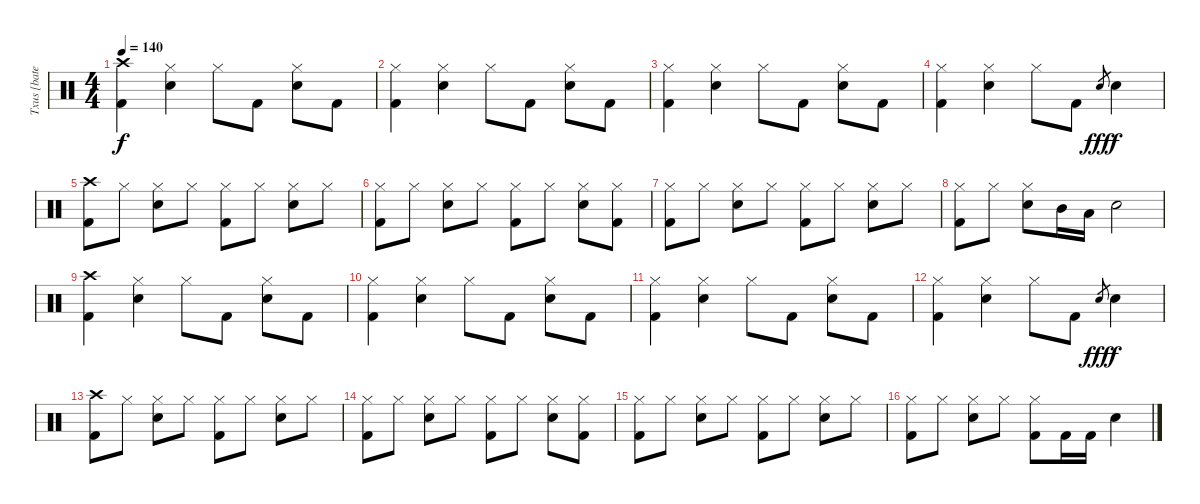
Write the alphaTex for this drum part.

\track ("Txus [bateria]" "Txus [bate") {instrument percussion}
\staff {score}
\articulation defaults
\ts (4 4)
\tempo 140
\clef neutral
\ks c
("Crash high (hit)" "Kick (hit) 2").4{dy f} ("Hi-Hat (closed)" "Snare (hit) 2").4 "Hi-Hat (closed)".8 "Kick (hit) 2".8 ("Hi-Hat (closed)" "Snare (hit) 2").8 "Kick (hit) 2".8 |
("Hi-Hat (closed)" "Kick (hit) 2").4 ("Hi-Hat (closed)" "Snare (hit) 2").4 "Hi-Hat (closed)".8 "Kick (hit) 2".8 ("Hi-Hat (closed)" "Snare (hit) 2").8 "Kick (hit) 2".8 |
("Hi-Hat (closed)" "Kick (hit) 2").4 ("Hi-Hat (closed)" "Snare (hit) 2").4 "Hi-Hat (closed)".8 "Kick (hit) 2".8 ("Hi-Hat (closed)" "Snare (hit) 2").8 "Kick (hit) 2".8 |
("Hi-Hat (closed)" "Kick (hit) 2").4 ("Hi-Hat (closed)" "Snare (hit) 2").4 "Hi-Hat (closed)".8 "Kick (hit) 2".8 "Snare (hit) 2".8{gr dy fff} "Snare (hit) 2".4{dy f} |
("Crash high (hit)" "Kick (hit) 2").8 "Hi-Hat (closed)".8 ("Hi-Hat (closed)" "Snare (hit) 2").8 "Hi-Hat (closed)".8 ("Hi-Hat (closed)" "Kick (hit) 2").8 "Hi-Hat (closed)".8 ("Hi-Hat (closed)" "Snare (hit) 2").8 "Hi-Hat (closed)".8 |
("Hi-Hat (closed)" "Kick (hit) 2").8 "Hi-Hat (closed)".8 ("Hi-Hat (closed)" "Snare (hit) 2").8 "Hi-Hat (closed)".8 ("Hi-Hat (closed)" "Kick (hit) 2").8 "Hi-Hat (closed)".8 ("Hi-Hat (closed)" "Snare (hit) 2").8 ("Hi-Hat (closed)" "Kick (hit) 2").8 |
("Hi-Hat (closed)" "Kick (hit) 2").8 "Hi-Hat (closed)".8 ("Hi-Hat (closed)" "Snare (hit) 2").8 "Hi-Hat (closed)".8 ("Hi-Hat (closed)" "Kick (hit) 2").8 "Hi-Hat (closed)".8 ("Hi-Hat (closed)" "Snare (hit) 2").8 "Hi-Hat (closed)".8 |
("Hi-Hat (closed)" "Kick (hit) 2").8 "Hi-Hat (closed)".8 ("Hi-Hat (closed)" "Snare (hit) 2").8 "Mid Tom (hit)".16 "Low Tom (hit)".16 "Snare (hit) 2".2 |
("Crash high (hit)" "Kick (hit) 2").4 ("Hi-Hat (closed)" "Snare (hit) 2").4 "Hi-Hat (closed)".8 "Kick (hit) 2".8 ("Hi-Hat (closed)" "Snare (hit) 2").8 "Kick (hit) 2".8 |
("Hi-Hat (closed)" "Kick (hit) 2").4 ("Hi-Hat (closed)" "Snare (hit) 2").4 "Hi-Hat (closed)".8 "Kick (hit) 2".8 ("Hi-Hat (closed)" "Snare (hit) 2").8 "Kick (hit) 2".8 |
("Hi-Hat (closed)" "Kick (hit) 2").4 ("Hi-Hat (closed)" "Snare (hit) 2").4 "Hi-Hat (closed)".8 "Kick (hit) 2".8 ("Hi-Hat (closed)" "Snare (hit) 2").8 "Kick (hit) 2".8 |
("Hi-Hat (closed)" "Kick (hit) 2").4 ("Hi-Hat (closed)" "Snare (hit) 2").4 "Hi-Hat (closed)".8 "Kick (hit) 2".8 "Snare (hit) 2".8{gr dy fff} "Snare (hit) 2".4{dy f} |
("Crash high (hit)" "Kick (hit) 2").8 "Hi-Hat (closed)".8 ("Hi-Hat (closed)" "Snare (hit) 2").8 "Hi-Hat (closed)".8 ("Hi-Hat (closed)" "Kick (hit) 2").8 "Hi-Hat (closed)".8 ("Hi-Hat (closed)" "Snare (hit) 2").8 "Hi-Hat (closed)".8 |
("Hi-Hat (closed)" "Kick (hit) 2").8 "Hi-Hat (closed)".8 ("Hi-Hat (closed)" "Snare (hit) 2").8 "Hi-Hat (closed)".8 ("Hi-Hat (closed)" "Kick (hit) 2").8 "Hi-Hat (closed)".8 ("Hi-Hat (closed)" "Snare (hit) 2").8 ("Hi-Hat (closed)" "Kick (hit) 2").8 |
("Hi-Hat (closed)" "Kick (hit) 2").8 "Hi-Hat (closed)".8 ("Hi-Hat (closed)" "Snare (hit) 2").8 "Hi-Hat (closed)".8 ("Hi-Hat (closed)" "Kick (hit) 2").8 "Hi-Hat (closed)".8 ("Hi-Hat (closed)" "Snare (hit) 2").8 "Hi-Hat (closed)".8 |
("Hi-Hat (closed)" "Kick (hit) 2").8 "Hi-Hat (closed)".8 ("Hi-Hat (closed)" "Snare (hit) 2").8 "Hi-Hat (closed)".8 ("Hi-Hat (closed)" "Kick (hit) 2").8 "Kick (hit) 2".16 "Kick (hit) 2".16 "Snare (hit) 2".4
